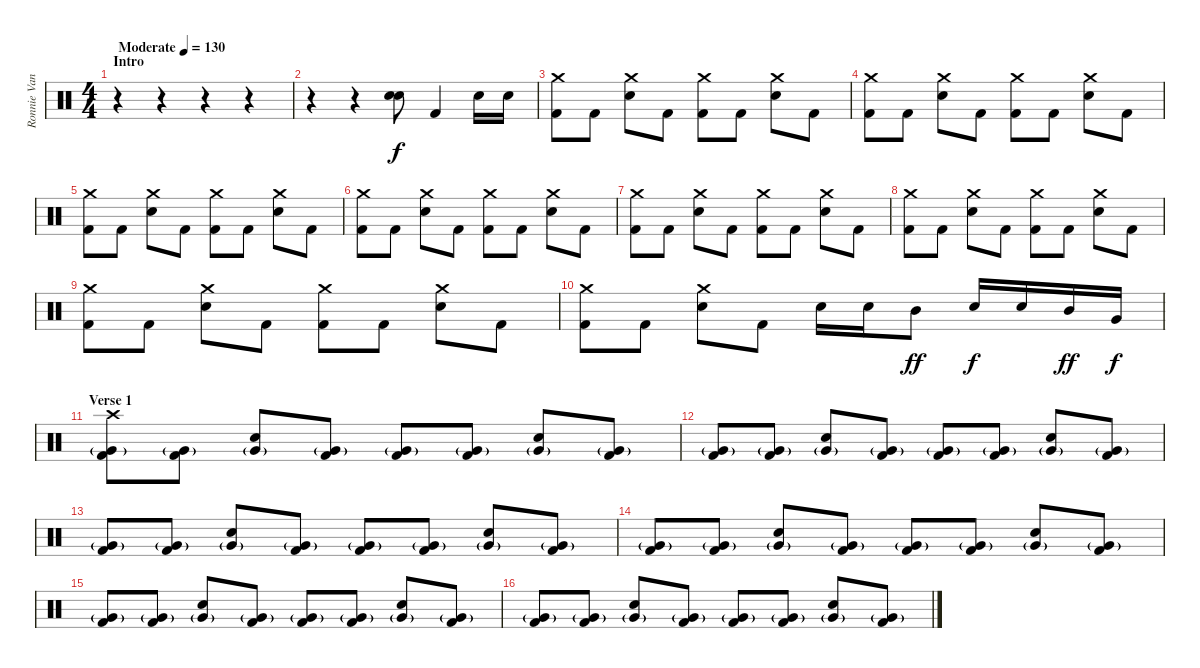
\track ("Ronnie Vannucci Jr." "Ronnie Van") {instrument percussion}
\staff {score}
\articulation defaults
\ts (4 4)
\section ("" "Intro")
\tempo (130 "Moderate")
\clef neutral
\ks c
r.4{dy f} r.4 r.4 r.4 |
r.4 r.4 ("Electric Snare (hit)" "Electric Snare (hit)").8{bu 120} "Kick (hit) 2".4 "Electric Snare (hit)".16 "Electric Snare (hit)".16 |
("Crash medium (hit)" "Kick (hit) 2").8 "Kick (hit) 2".8 ("Crash medium (hit)" "Electric Snare (hit)").8 "Kick (hit) 2".8 ("Crash medium (hit)" "Kick (hit) 2").8 "Kick (hit) 2".8 ("Crash medium (hit)" "Electric Snare (hit)").8 "Kick (hit) 2".8 |
("Crash medium (hit)" "Kick (hit) 2").8 "Kick (hit) 2".8 ("Crash medium (hit)" "Electric Snare (hit)").8 "Kick (hit) 2".8 ("Crash medium (hit)" "Kick (hit) 2").8 "Kick (hit) 2".8 ("Crash medium (hit)" "Electric Snare (hit)").8 "Kick (hit) 2".8 |
("Crash medium (hit)" "Kick (hit) 2").8 "Kick (hit) 2".8 ("Crash medium (hit)" "Electric Snare (hit)").8 "Kick (hit) 2".8 ("Crash medium (hit)" "Kick (hit) 2").8 "Kick (hit) 2".8 ("Crash medium (hit)" "Electric Snare (hit)").8 "Kick (hit) 2".8 |
("Crash medium (hit)" "Kick (hit) 2").8 "Kick (hit) 2".8 ("Crash medium (hit)" "Electric Snare (hit)").8 "Kick (hit) 2".8 ("Crash medium (hit)" "Kick (hit) 2").8 "Kick (hit) 2".8 ("Crash medium (hit)" "Electric Snare (hit)").8 "Kick (hit) 2".8 |
("Crash medium (hit)" "Kick (hit) 2").8 "Kick (hit) 2".8 ("Crash medium (hit)" "Electric Snare (hit)").8 "Kick (hit) 2".8 ("Crash medium (hit)" "Kick (hit) 2").8 "Kick (hit) 2".8 ("Crash medium (hit)" "Electric Snare (hit)").8 "Kick (hit) 2".8 |
("Crash medium (hit)" "Kick (hit) 2").8 "Kick (hit) 2".8 ("Crash medium (hit)" "Electric Snare (hit)").8 "Kick (hit) 2".8 ("Crash medium (hit)" "Kick (hit) 2").8 "Kick (hit) 2".8 ("Crash medium (hit)" "Electric Snare (hit)").8 "Kick (hit) 2".8 |
("Crash medium (hit)" "Kick (hit) 2").8 "Kick (hit) 2".8 ("Crash medium (hit)" "Electric Snare (hit)").8 "Kick (hit) 2".8 ("Crash medium (hit)" "Kick (hit) 2").8 "Kick (hit) 2".8 ("Crash medium (hit)" "Electric Snare (hit)").8 "Kick (hit) 2".8 |
("Crash medium (hit)" "Kick (hit) 2").8 "Kick (hit) 2".8 ("Crash medium (hit)" "Electric Snare (hit)").8 "Kick (hit) 2".8 "Electric Snare (hit)".16 "Electric Snare (hit)".16 "Mid Tom (hit)".8{dy ff} "Electric Snare (hit)".16{dy f} "Electric Snare (hit)".16 "Mid Tom (hit)".16{dy ff} "Very Low Tom (hit)".16{dy f} |
\section ("" "Verse 1")
("Crash high (hit)" "Very Low Tom (hit)"{g} "Kick (hit) 2").8 ("Very Low Tom (hit)"{g} "Kick (hit) 2").8 ("Very Low Tom (hit)"{g} "Electric Snare (hit)").8 ("Very Low Tom (hit)"{g} "Kick (hit) 2").8 ("Very Low Tom (hit)"{g} "Kick (hit) 2").8 ("Very Low Tom (hit)"{g} "Kick (hit) 2").8 ("Very Low Tom (hit)"{g} "Electric Snare (hit)").8 ("Very Low Tom (hit)"{g} "Kick (hit) 2").8 |
("Very Low Tom (hit)"{g} "Kick (hit) 2").8 ("Very Low Tom (hit)"{g} "Kick (hit) 2").8 ("Very Low Tom (hit)"{g} "Electric Snare (hit)").8 ("Very Low Tom (hit)"{g} "Kick (hit) 2").8 ("Very Low Tom (hit)"{g} "Kick (hit) 2").8 ("Very Low Tom (hit)"{g} "Kick (hit) 2").8 ("Very Low Tom (hit)"{g} "Electric Snare (hit)").8 ("Very Low Tom (hit)"{g} "Kick (hit) 2").8 |
("Very Low Tom (hit)"{g} "Kick (hit) 2").8 ("Very Low Tom (hit)"{g} "Kick (hit) 2").8 ("Very Low Tom (hit)"{g} "Electric Snare (hit)").8 ("Very Low Tom (hit)"{g} "Kick (hit) 2").8 ("Very Low Tom (hit)"{g} "Kick (hit) 2").8 ("Very Low Tom (hit)"{g} "Kick (hit) 2").8 ("Very Low Tom (hit)"{g} "Electric Snare (hit)").8 ("Very Low Tom (hit)"{g} "Kick (hit) 2").8 |
("Very Low Tom (hit)"{g} "Kick (hit) 2").8 ("Very Low Tom (hit)"{g} "Kick (hit) 2").8 ("Very Low Tom (hit)"{g} "Electric Snare (hit)").8 ("Very Low Tom (hit)"{g} "Kick (hit) 2").8 ("Very Low Tom (hit)"{g} "Kick (hit) 2").8 ("Very Low Tom (hit)"{g} "Kick (hit) 2").8 ("Very Low Tom (hit)"{g} "Electric Snare (hit)").8 ("Very Low Tom (hit)"{g} "Kick (hit) 2").8 |
("Very Low Tom (hit)"{g} "Kick (hit) 2").8 ("Very Low Tom (hit)"{g} "Kick (hit) 2").8 ("Very Low Tom (hit)"{g} "Electric Snare (hit)").8 ("Very Low Tom (hit)"{g} "Kick (hit) 2").8 ("Very Low Tom (hit)"{g} "Kick (hit) 2").8 ("Very Low Tom (hit)"{g} "Kick (hit) 2").8 ("Very Low Tom (hit)"{g} "Electric Snare (hit)").8 ("Very Low Tom (hit)"{g} "Kick (hit) 2").8 |
("Very Low Tom (hit)"{g} "Kick (hit) 2").8 ("Very Low Tom (hit)"{g} "Kick (hit) 2").8 ("Very Low Tom (hit)"{g} "Electric Snare (hit)").8 ("Very Low Tom (hit)"{g} "Kick (hit) 2").8 ("Very Low Tom (hit)"{g} "Kick (hit) 2").8 ("Very Low Tom (hit)"{g} "Kick (hit) 2").8 ("Very Low Tom (hit)"{g} "Electric Snare (hit)").8 ("Very Low Tom (hit)"{g} "Kick (hit) 2").8
